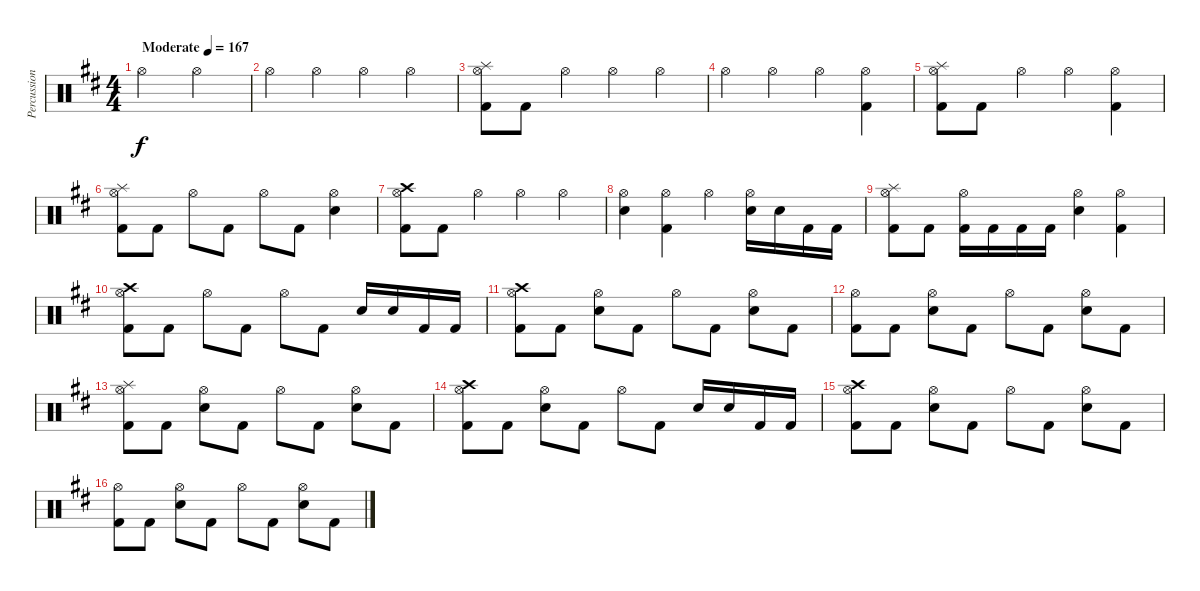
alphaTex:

\track ("Percussion" "Percussion") {instrument percussion}
\staff {score}
\articulation defaults
\ts (4 4)
\tempo (167 "Moderate")
\clef neutral
\ks d "Hi-Hat (open)".2{dy f} "Hi-Hat (open)".2
|
"Hi-Hat (open)".4 "Hi-Hat (open)".4 "Hi-Hat (open)".4 "Hi-Hat (open)".4 |
("Hi-Hat (open)" "Splash (hit)" "Kick (hit) 2").8 "Kick (hit) 2".8 "Hi-Hat (open)".4 "Hi-Hat (open)".4 "Hi-Hat (open)".4 |
"Hi-Hat (open)".4 "Hi-Hat (open)".4 "Hi-Hat (open)".4 ("Hi-Hat (open)" "Kick (hit) 2").4 |
("Hi-Hat (open)" "Splash (hit)" "Kick (hit) 2").8 "Kick (hit) 2".8 "Hi-Hat (open)".4 "Hi-Hat (open)".4 ("Hi-Hat (open)" "Kick (hit) 2").4 |
("Hi-Hat (open)" "Splash (hit)" "Kick (hit) 2").8 "Kick (hit) 2".8 "Hi-Hat (open)".8 "Kick (hit) 2".8 "Hi-Hat (open)".8 "Kick (hit) 2".8 ("Hi-Hat (open)" "Electric Snare (hit)").4 |
("Hi-Hat (open)" "Crash high (hit)" "Kick (hit) 2").8 "Kick (hit) 2".8 "Hi-Hat (open)".4 "Hi-Hat (open)".4 "Hi-Hat (open)".4 |
("Hi-Hat (open)" "Electric Snare (hit)").4 ("Hi-Hat (open)" "Kick (hit) 2").4 "Hi-Hat (open)".4 ("Hi-Hat (open)" "Electric Snare (hit)").16 "Electric Snare (hit)".16 "Kick (hit) 2".16 "Kick (hit) 2".16 |
("Hi-Hat (open)" "Splash (hit)" "Kick (hit) 2").8 "Kick (hit) 2".8 ("Hi-Hat (open)" "Kick (hit) 2").16 "Kick (hit) 2".16 "Kick (hit) 2".16 "Kick (hit) 2".16 ("Hi-Hat (open)" "Electric Snare (hit)").4 ("Hi-Hat (open)" "Kick (hit) 2").4 |
("Hi-Hat (open)" "Crash high (hit)" "Kick (hit) 2").8 "Kick (hit) 2".8 "Hi-Hat (open)".8 "Kick (hit) 2".8 "Hi-Hat (open)".8 "Kick (hit) 2".8 "Electric Snare (hit)".16 "Electric Snare (hit)".16 "Kick (hit) 2".16 "Kick (hit) 2".16 |
("Hi-Hat (open)" "Crash high (hit)" "Kick (hit) 2").8 "Kick (hit) 2".8 ("Hi-Hat (open)" "Electric Snare (hit)").8 "Kick (hit) 2".8 "Hi-Hat (open)".8 "Kick (hit) 2".8 ("Hi-Hat (open)" "Electric Snare (hit)").8 "Kick (hit) 2".8 |
("Hi-Hat (open)" "Kick (hit) 2").8 "Kick (hit) 2".8 ("Hi-Hat (open)" "Electric Snare (hit)").8 "Kick (hit) 2".8 "Hi-Hat (open)".8 "Kick (hit) 2".8 ("Hi-Hat (open)" "Electric Snare (hit)").8 "Kick (hit) 2".8 |
("Hi-Hat (open)" "Splash (hit)" "Kick (hit) 2").8 "Kick (hit) 2".8 ("Hi-Hat (open)" "Electric Snare (hit)").8 "Kick (hit) 2".8 "Hi-Hat (open)".8 "Kick (hit) 2".8 ("Hi-Hat (open)" "Electric Snare (hit)").8 "Kick (hit) 2".8 |
("Hi-Hat (open)" "Crash high (hit)" "Kick (hit) 2").8 "Kick (hit) 2".8 ("Hi-Hat (open)" "Electric Snare (hit)").8 "Kick (hit) 2".8 "Hi-Hat (open)".8 "Kick (hit) 2".8 "Electric Snare (hit)".16 "Electric Snare (hit)".16 "Kick (hit) 2".16 "Kick (hit) 2".16 |
("Hi-Hat (open)" "Crash high (hit)" "Kick (hit) 2").8 "Kick (hit) 2".8 ("Hi-Hat (open)" "Electric Snare (hit)").8 "Kick (hit) 2".8 "Hi-Hat (open)".8 "Kick (hit) 2".8 ("Hi-Hat (open)" "Electric Snare (hit)").8 "Kick (hit) 2".8 |
("Hi-Hat (open)" "Kick (hit) 2").8 "Kick (hit) 2".8 ("Hi-Hat (open)" "Electric Snare (hit)").8 "Kick (hit) 2".8 "Hi-Hat (open)".8 "Kick (hit) 2".8 ("Hi-Hat (open)" "Electric Snare (hit)").8 "Kick (hit) 2".8
